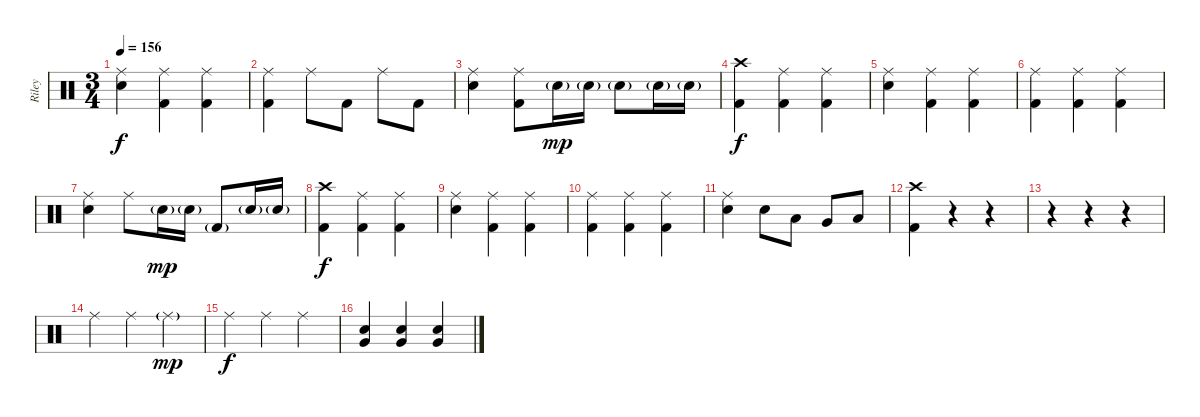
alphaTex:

\track ("Riley" "Riley") {instrument percussion}
\staff {score}
\articulation defaults
\ts (3 4)
\tempo 156
\clef neutral
\ks c
("Ride (middle)" "Electric Snare (hit)").4{dy f} ("Ride (middle)" "Kick (hit) 2").4 ("Ride (middle)" "Kick (hit) 2").4 |
("Ride (middle)" "Kick (hit) 2").4 "Ride (middle)".8 "Kick (hit) 2".8 "Ride (middle)".8 "Kick (hit) 2".8 |
("Ride (middle)" "Electric Snare (hit)").4 ("Ride (middle)" "Kick (hit) 2").8 "Electric Snare (hit)"{g}.16{dy mp} "Electric Snare (hit)"{g}.16 "Electric Snare (hit)"{g}.8 "Electric Snare (hit)"{g}.16 "Electric Snare (hit)"{g}.16 |
("Crash high (hit)" "Kick (hit) 2").4{dy f} ("Ride (middle)" "Kick (hit) 2").4 ("Ride (middle)" "Kick (hit) 2").4 |
("Ride (middle)" "Electric Snare (hit)").4 ("Ride (middle)" "Kick (hit) 2").4 ("Ride (middle)" "Kick (hit) 2").4 |
("Ride (middle)" "Kick (hit) 2").4 ("Ride (middle)" "Kick (hit) 2").4 ("Ride (middle)" "Kick (hit) 2").4 |
("Ride (middle)" "Electric Snare (hit)").4 "Ride (middle)".8 "Electric Snare (hit)"{g}.16{dy mp} "Electric Snare (hit)"{g}.16 "Kick (hit) 2"{g}.8 "Electric Snare (hit)"{g}.16 "Electric Snare (hit)"{g}.16 |
("Crash high (hit)" "Kick (hit) 2").4{dy f} ("Ride (middle)" "Kick (hit) 2").4 ("Ride (middle)" "Kick (hit) 2").4 |
("Ride (middle)" "Electric Snare (hit)").4 ("Ride (middle)" "Kick (hit) 2").4 ("Ride (middle)" "Kick (hit) 2").4 |
("Ride (middle)" "Kick (hit) 2").4 ("Ride (middle)" "Kick (hit) 2").4 ("Ride (middle)" "Kick (hit) 2").4 |
("Ride (middle)" "Electric Snare (hit)").4 "Electric Snare (hit)".8 "Low Tom (hit)".8 "Very Low Tom (hit)".8 "Low Floor Tom (hit)".8 |
("Crash high (hit)" "Kick (hit) 2").4 r.4 r.4 |
r.4 r.4 r.4 |
"Ride (middle)".4 "Ride (middle)".4 "Ride (middle)"{g}.4{dy mp} |
"Ride (middle)".4{dy f} "Ride (middle)".4 "Ride (middle)".4 |
("Very Low Tom (hit)" "Electric Snare (hit)").4{volume 8} ("Very Low Tom (hit)" "Electric Snare (hit)").4 ("Very Low Tom (hit)" "Electric Snare (hit)").4
